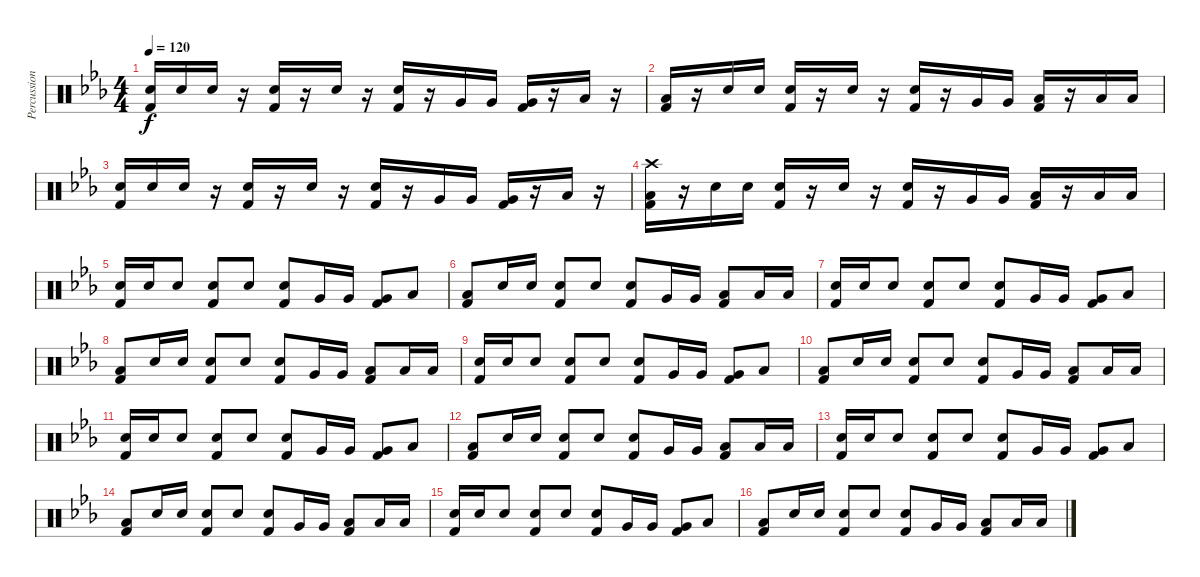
\track ("Percussion" "Percussion") {instrument percussion}
\staff {score}
\articulation defaults
\ts (4 4)
\tempo 120
\clef neutral
\ks eb
("Electric Snare (hit)" "Kick (hit) 2").16{dy f} "Electric Snare (hit)".16 "Electric Snare (hit)".16 r.16 ("Electric Snare (hit)" "Kick (hit) 2").16 r.16 "Electric Snare (hit)".16 r.16 ("Electric Snare (hit)" "Kick (hit) 2").16 r.16 "Very Low Tom (hit)".16 "Very Low Tom (hit)".16 ("Very Low Tom (hit)" "Kick (hit) 2").16 r.16 "Low Floor Tom (hit)".16 r.16 |
("Low Floor Tom (hit)" "Kick (hit) 2").16 r.16 "Electric Snare (hit)".16 "Electric Snare (hit)".16 ("Electric Snare (hit)" "Kick (hit) 2").16 r.16 "Electric Snare (hit)".16 r.16 ("Electric Snare (hit)" "Kick (hit) 2").16 r.16 "Very Low Tom (hit)".16 "Very Low Tom (hit)".16 ("Low Floor Tom (hit)" "Kick (hit) 2").16 r.16 "Low Floor Tom (hit)".16 "Low Floor Tom (hit)".16 |
("Electric Snare (hit)" "Kick (hit) 2").16 "Electric Snare (hit)".16 "Electric Snare (hit)".16 r.16 ("Electric Snare (hit)" "Kick (hit) 2").16 r.16 "Electric Snare (hit)".16 r.16 ("Electric Snare (hit)" "Kick (hit) 2").16 r.16 "Very Low Tom (hit)".16 "Very Low Tom (hit)".16 ("Very Low Tom (hit)" "Kick (hit) 2").16 r.16 "Low Floor Tom (hit)".16 r.16 |
("Crash high (hit)" "Low Floor Tom (hit)" "Kick (hit) 2").16 r.16 "Electric Snare (hit)".16 "Electric Snare (hit)".16 ("Electric Snare (hit)" "Kick (hit) 2").16 r.16 "Electric Snare (hit)".16 r.16 ("Electric Snare (hit)" "Kick (hit) 2").16 r.16 "Very Low Tom (hit)".16 "Very Low Tom (hit)".16 ("Low Floor Tom (hit)" "Kick (hit) 2").16 r.16 "Low Floor Tom (hit)".16 "Low Floor Tom (hit)".16 |
("Electric Snare (hit)" "Kick (hit) 2").16 "Electric Snare (hit)".16 "Electric Snare (hit)".8 ("Electric Snare (hit)" "Kick (hit) 2").8 "Electric Snare (hit)".8 ("Electric Snare (hit)" "Kick (hit) 2").8 "Very Low Tom (hit)".16 "Very Low Tom (hit)".16 ("Very Low Tom (hit)" "Kick (hit) 2").8 "Low Floor Tom (hit)".8 |
("Low Floor Tom (hit)" "Kick (hit) 2").8 "Electric Snare (hit)".16 "Electric Snare (hit)".16 ("Electric Snare (hit)" "Kick (hit) 2").8 "Electric Snare (hit)".8 ("Electric Snare (hit)" "Kick (hit) 2").8 "Very Low Tom (hit)".16 "Very Low Tom (hit)".16 ("Low Floor Tom (hit)" "Kick (hit) 2").8 "Low Floor Tom (hit)".16 "Low Floor Tom (hit)".16 |
("Electric Snare (hit)" "Kick (hit) 2").16 "Electric Snare (hit)".16 "Electric Snare (hit)".8 ("Electric Snare (hit)" "Kick (hit) 2").8 "Electric Snare (hit)".8 ("Electric Snare (hit)" "Kick (hit) 2").8 "Very Low Tom (hit)".16 "Very Low Tom (hit)".16 ("Very Low Tom (hit)" "Kick (hit) 2").8 "Low Floor Tom (hit)".8 |
("Low Floor Tom (hit)" "Kick (hit) 2").8 "Electric Snare (hit)".16 "Electric Snare (hit)".16 ("Electric Snare (hit)" "Kick (hit) 2").8 "Electric Snare (hit)".8 ("Electric Snare (hit)" "Kick (hit) 2").8 "Very Low Tom (hit)".16 "Very Low Tom (hit)".16 ("Low Floor Tom (hit)" "Kick (hit) 2").8 "Low Floor Tom (hit)".16 "Low Floor Tom (hit)".16 |
("Electric Snare (hit)" "Kick (hit) 2").16 "Electric Snare (hit)".16 "Electric Snare (hit)".8 ("Electric Snare (hit)" "Kick (hit) 2").8 "Electric Snare (hit)".8 ("Electric Snare (hit)" "Kick (hit) 2").8 "Very Low Tom (hit)".16 "Very Low Tom (hit)".16 ("Very Low Tom (hit)" "Kick (hit) 2").8 "Low Floor Tom (hit)".8 |
("Low Floor Tom (hit)" "Kick (hit) 2").8 "Electric Snare (hit)".16 "Electric Snare (hit)".16 ("Electric Snare (hit)" "Kick (hit) 2").8 "Electric Snare (hit)".8 ("Electric Snare (hit)" "Kick (hit) 2").8 "Very Low Tom (hit)".16 "Very Low Tom (hit)".16 ("Low Floor Tom (hit)" "Kick (hit) 2").8 "Low Floor Tom (hit)".16 "Low Floor Tom (hit)".16 |
("Electric Snare (hit)" "Kick (hit) 2").16 "Electric Snare (hit)".16 "Electric Snare (hit)".8 ("Electric Snare (hit)" "Kick (hit) 2").8 "Electric Snare (hit)".8 ("Electric Snare (hit)" "Kick (hit) 2").8 "Very Low Tom (hit)".16 "Very Low Tom (hit)".16 ("Very Low Tom (hit)" "Kick (hit) 2").8 "Low Floor Tom (hit)".8 |
("Low Floor Tom (hit)" "Kick (hit) 2").8 "Electric Snare (hit)".16 "Electric Snare (hit)".16 ("Electric Snare (hit)" "Kick (hit) 2").8 "Electric Snare (hit)".8 ("Electric Snare (hit)" "Kick (hit) 2").8 "Very Low Tom (hit)".16 "Very Low Tom (hit)".16 ("Low Floor Tom (hit)" "Kick (hit) 2").8 "Low Floor Tom (hit)".16 "Low Floor Tom (hit)".16 |
("Electric Snare (hit)" "Kick (hit) 2").16 "Electric Snare (hit)".16 "Electric Snare (hit)".8 ("Electric Snare (hit)" "Kick (hit) 2").8 "Electric Snare (hit)".8 ("Electric Snare (hit)" "Kick (hit) 2").8 "Very Low Tom (hit)".16 "Very Low Tom (hit)".16 ("Very Low Tom (hit)" "Kick (hit) 2").8 "Low Floor Tom (hit)".8 |
("Low Floor Tom (hit)" "Kick (hit) 2").8 "Electric Snare (hit)".16 "Electric Snare (hit)".16 ("Electric Snare (hit)" "Kick (hit) 2").8 "Electric Snare (hit)".8 ("Electric Snare (hit)" "Kick (hit) 2").8 "Very Low Tom (hit)".16 "Very Low Tom (hit)".16 ("Low Floor Tom (hit)" "Kick (hit) 2").8 "Low Floor Tom (hit)".16 "Low Floor Tom (hit)".16 |
("Electric Snare (hit)" "Kick (hit) 2").16 "Electric Snare (hit)".16 "Electric Snare (hit)".8 ("Electric Snare (hit)" "Kick (hit) 2").8 "Electric Snare (hit)".8 ("Electric Snare (hit)" "Kick (hit) 2").8 "Very Low Tom (hit)".16 "Very Low Tom (hit)".16 ("Very Low Tom (hit)" "Kick (hit) 2").8 "Low Floor Tom (hit)".8 |
("Low Floor Tom (hit)" "Kick (hit) 2").8 "Electric Snare (hit)".16 "Electric Snare (hit)".16 ("Electric Snare (hit)" "Kick (hit) 2").8 "Electric Snare (hit)".8 ("Electric Snare (hit)" "Kick (hit) 2").8 "Very Low Tom (hit)".16 "Very Low Tom (hit)".16 ("Low Floor Tom (hit)" "Kick (hit) 2").8 "Low Floor Tom (hit)".16 "Low Floor Tom (hit)".16
